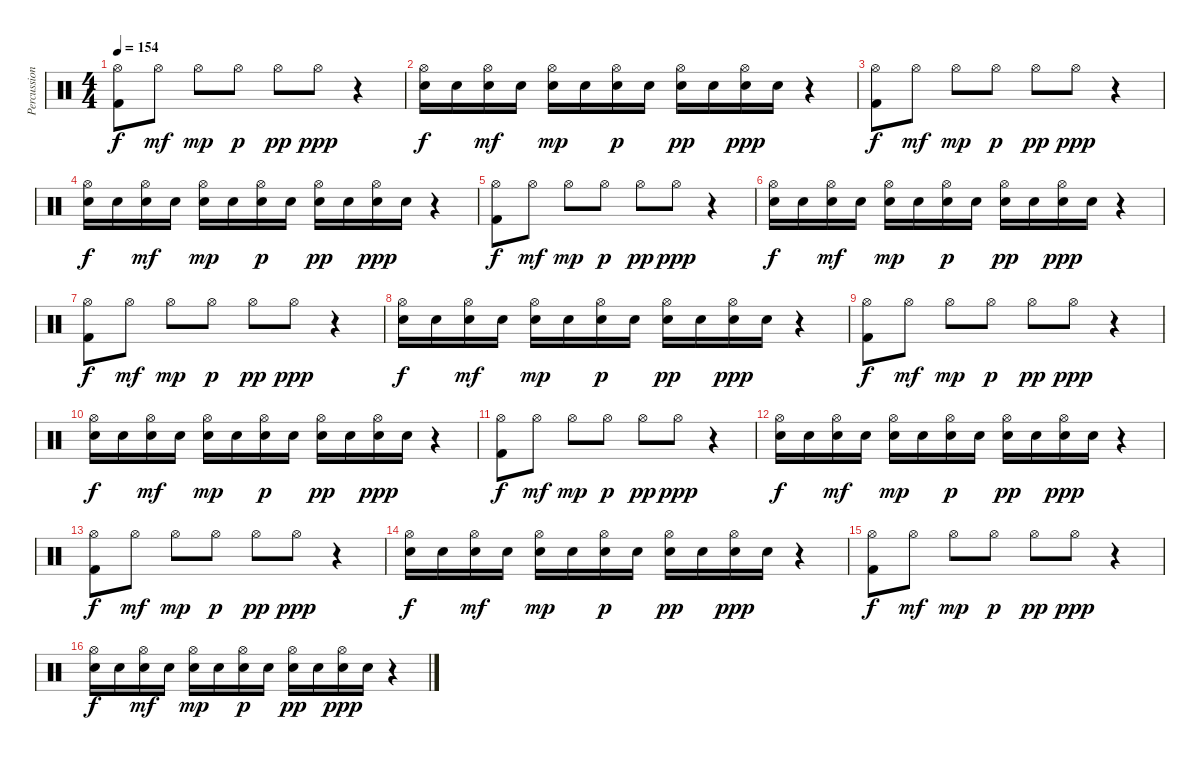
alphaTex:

\track ("Percussion" "Percussion") {instrument percussion}
\staff {score}
\articulation defaults
\ts (4 4)
\section ("" "")
\tempo 154
\clef neutral
\ks c
("Hi-Hat (open)" "Kick (hit) 2").8{dy f} "Hi-Hat (open)".8{dy mf} "Hi-Hat (open)".8{dy mp} "Hi-Hat (open)".8{dy p} "Hi-Hat (open)".8{dy pp} "Hi-Hat (open)".8{dy ppp} r.4 |
("Hi-Hat (open)" "Snare (hit) 2").16{dy f} "Snare (hit) 2".16 ("Hi-Hat (open)" "Snare (hit) 2").16{dy mf} "Snare (hit) 2".16 ("Hi-Hat (open)" "Snare (hit) 2").16{dy mp} "Snare (hit) 2".16 ("Hi-Hat (open)" "Snare (hit) 2").16{dy p} "Snare (hit) 2".16 ("Hi-Hat (open)" "Snare (hit) 2").16{dy pp} "Snare (hit) 2".16 ("Hi-Hat (open)" "Snare (hit) 2").16{dy ppp} "Snare (hit) 2".16 r.4 |
("Hi-Hat (open)" "Kick (hit) 2").8{dy f} "Hi-Hat (open)".8{dy mf} "Hi-Hat (open)".8{dy mp} "Hi-Hat (open)".8{dy p} "Hi-Hat (open)".8{dy pp} "Hi-Hat (open)".8{dy ppp} r.4 |
("Hi-Hat (open)" "Snare (hit) 2").16{dy f} "Snare (hit) 2".16 ("Hi-Hat (open)" "Snare (hit) 2").16{dy mf} "Snare (hit) 2".16 ("Hi-Hat (open)" "Snare (hit) 2").16{dy mp} "Snare (hit) 2".16 ("Hi-Hat (open)" "Snare (hit) 2").16{dy p} "Snare (hit) 2".16 ("Hi-Hat (open)" "Snare (hit) 2").16{dy pp} "Snare (hit) 2".16 ("Hi-Hat (open)" "Snare (hit) 2").16{dy ppp} "Snare (hit) 2".16 r.4 |
("Hi-Hat (open)" "Kick (hit) 2").8{dy f} "Hi-Hat (open)".8{dy mf} "Hi-Hat (open)".8{dy mp} "Hi-Hat (open)".8{dy p} "Hi-Hat (open)".8{dy pp} "Hi-Hat (open)".8{dy ppp} r.4 |
("Hi-Hat (open)" "Snare (hit) 2").16{dy f} "Snare (hit) 2".16 ("Hi-Hat (open)" "Snare (hit) 2").16{dy mf} "Snare (hit) 2".16 ("Hi-Hat (open)" "Snare (hit) 2").16{dy mp} "Snare (hit) 2".16 ("Hi-Hat (open)" "Snare (hit) 2").16{dy p} "Snare (hit) 2".16 ("Hi-Hat (open)" "Snare (hit) 2").16{dy pp} "Snare (hit) 2".16 ("Hi-Hat (open)" "Snare (hit) 2").16{dy ppp} "Snare (hit) 2".16 r.4 |
("Hi-Hat (open)" "Kick (hit) 2").8{dy f} "Hi-Hat (open)".8{dy mf} "Hi-Hat (open)".8{dy mp} "Hi-Hat (open)".8{dy p} "Hi-Hat (open)".8{dy pp} "Hi-Hat (open)".8{dy ppp} r.4 |
("Hi-Hat (open)" "Snare (hit) 2").16{dy f} "Snare (hit) 2".16 ("Hi-Hat (open)" "Snare (hit) 2").16{dy mf} "Snare (hit) 2".16 ("Hi-Hat (open)" "Snare (hit) 2").16{dy mp} "Snare (hit) 2".16 ("Hi-Hat (open)" "Snare (hit) 2").16{dy p} "Snare (hit) 2".16 ("Hi-Hat (open)" "Snare (hit) 2").16{dy pp} "Snare (hit) 2".16 ("Hi-Hat (open)" "Snare (hit) 2").16{dy ppp} "Snare (hit) 2".16 r.4 |
\section ("" "")
("Hi-Hat (open)" "Kick (hit) 2").8{dy f} "Hi-Hat (open)".8{dy mf} "Hi-Hat (open)".8{dy mp} "Hi-Hat (open)".8{dy p} "Hi-Hat (open)".8{dy pp} "Hi-Hat (open)".8{dy ppp} r.4 |
("Hi-Hat (open)" "Snare (hit) 2").16{dy f} "Snare (hit) 2".16 ("Hi-Hat (open)" "Snare (hit) 2").16{dy mf} "Snare (hit) 2".16 ("Hi-Hat (open)" "Snare (hit) 2").16{dy mp} "Snare (hit) 2".16 ("Hi-Hat (open)" "Snare (hit) 2").16{dy p} "Snare (hit) 2".16 ("Hi-Hat (open)" "Snare (hit) 2").16{dy pp} "Snare (hit) 2".16 ("Hi-Hat (open)" "Snare (hit) 2").16{dy ppp} "Snare (hit) 2".16 r.4 |
("Hi-Hat (open)" "Kick (hit) 2").8{dy f} "Hi-Hat (open)".8{dy mf} "Hi-Hat (open)".8{dy mp} "Hi-Hat (open)".8{dy p} "Hi-Hat (open)".8{dy pp} "Hi-Hat (open)".8{dy ppp} r.4 |
("Hi-Hat (open)" "Snare (hit) 2").16{dy f} "Snare (hit) 2".16 ("Hi-Hat (open)" "Snare (hit) 2").16{dy mf} "Snare (hit) 2".16 ("Hi-Hat (open)" "Snare (hit) 2").16{dy mp} "Snare (hit) 2".16 ("Hi-Hat (open)" "Snare (hit) 2").16{dy p} "Snare (hit) 2".16 ("Hi-Hat (open)" "Snare (hit) 2").16{dy pp} "Snare (hit) 2".16 ("Hi-Hat (open)" "Snare (hit) 2").16{dy ppp} "Snare (hit) 2".16 r.4 |
("Hi-Hat (open)" "Kick (hit) 2").8{dy f} "Hi-Hat (open)".8{dy mf} "Hi-Hat (open)".8{dy mp} "Hi-Hat (open)".8{dy p} "Hi-Hat (open)".8{dy pp} "Hi-Hat (open)".8{dy ppp} r.4 |
("Hi-Hat (open)" "Snare (hit) 2").16{dy f} "Snare (hit) 2".16 ("Hi-Hat (open)" "Snare (hit) 2").16{dy mf} "Snare (hit) 2".16 ("Hi-Hat (open)" "Snare (hit) 2").16{dy mp} "Snare (hit) 2".16 ("Hi-Hat (open)" "Snare (hit) 2").16{dy p} "Snare (hit) 2".16 ("Hi-Hat (open)" "Snare (hit) 2").16{dy pp} "Snare (hit) 2".16 ("Hi-Hat (open)" "Snare (hit) 2").16{dy ppp} "Snare (hit) 2".16 r.4 |
("Hi-Hat (open)" "Kick (hit) 2").8{dy f} "Hi-Hat (open)".8{dy mf} "Hi-Hat (open)".8{dy mp} "Hi-Hat (open)".8{dy p} "Hi-Hat (open)".8{dy pp} "Hi-Hat (open)".8{dy ppp} r.4 |
("Hi-Hat (open)" "Snare (hit) 2").16{dy f} "Snare (hit) 2".16 ("Hi-Hat (open)" "Snare (hit) 2").16{dy mf} "Snare (hit) 2".16 ("Hi-Hat (open)" "Snare (hit) 2").16{dy mp} "Snare (hit) 2".16 ("Hi-Hat (open)" "Snare (hit) 2").16{dy p} "Snare (hit) 2".16 ("Hi-Hat (open)" "Snare (hit) 2").16{dy pp} "Snare (hit) 2".16 ("Hi-Hat (open)" "Snare (hit) 2").16{dy ppp} "Snare (hit) 2".16 r.4
